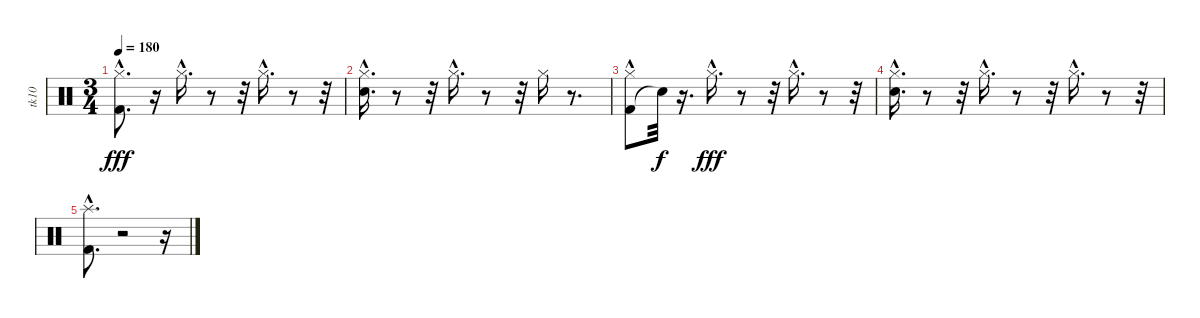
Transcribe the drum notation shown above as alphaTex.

\track ("tk10" "tk10") {instrument percussion}
\staff {score}
\articulation defaults
\ts (3 4)
\tempo 180
\clef neutral
\ks c
("Kick (hit) 2"{hac} "Hi-Hat (closed)"{hac}).8{d dy fff} r.16 "Hi-Hat (closed)"{hac}.16{d} r.8 r.32 "Hi-Hat (closed)"{hac}.16{d} r.8 r.32 |
("Snare (hit) 2"{hac} "Hi-Hat (closed)"{hac}).16{d} r.8 r.32 "Hi-Hat (closed)"{hac}.16{d} r.8 r.32 "Hi-Hat (closed)".16 r.8{d} |
("Kick (hit) 2" "Hi-Hat (closed)"{hac}).8 "Snare (hit)"{t}.32{dy f} r.16{d} "Hi-Hat (closed)"{hac}.16{d dy fff} r.8 r.32 "Hi-Hat (closed)"{hac}.16{d} r.8 r.32 |
("Snare (hit) 2"{hac} "Hi-Hat (closed)"{hac}).16{d} r.8 r.32 "Hi-Hat (closed)"{hac}.16{d} r.8 r.32 "Hi-Hat (closed)"{hac}.16{d} r.8 r.32 |
("Kick (hit) 2"{hac} "Splash (hit)"{hac}).8{d} r.2 r.16
